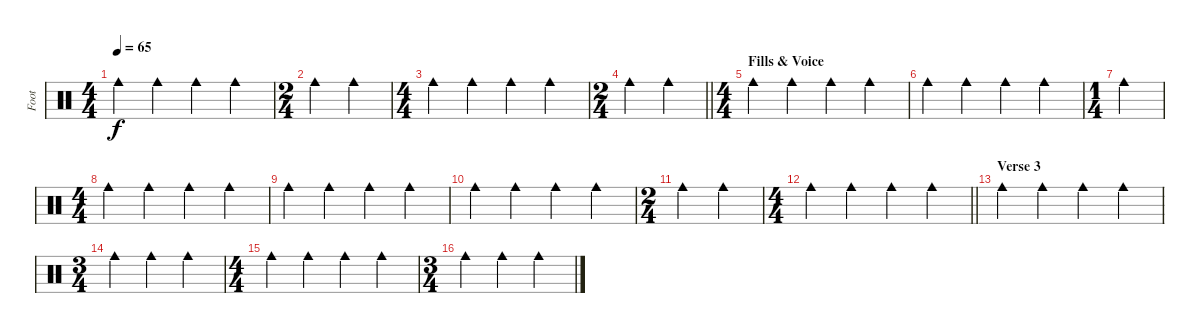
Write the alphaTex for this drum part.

\track ("Foot" "Foot") {instrument percussion}
\staff {score}
\articulation defaults
\ts (4 4)
\tempo 65
\clef neutral
\ks c "Cowbell medium (hit)".4{dy f} "Cowbell medium (hit)".4 "Cowbell medium (hit)".4 "Cowbell medium (hit)".4
|
\ts (2 4)
"Cowbell medium (hit)".4 "Cowbell medium (hit)".4 |
\ts (4 4)
"Cowbell medium (hit)".4 "Cowbell medium (hit)".4 "Cowbell medium (hit)".4 "Cowbell medium (hit)".4 |
\ts (2 4)
\barLineRight lightlight "Cowbell medium (hit)".4 "Cowbell medium (hit)".4
|
\ts (4 4)
\section ("" "Fills & Voice")
"Cowbell medium (hit)".4 "Cowbell medium (hit)".4 "Cowbell medium (hit)".4 "Cowbell medium (hit)".4 |
"Cowbell medium (hit)".4 "Cowbell medium (hit)".4 "Cowbell medium (hit)".4 "Cowbell medium (hit)".4 |
\ts (1 4)
"Cowbell medium (hit)".4 |
\ts (4 4)
"Cowbell medium (hit)".4 "Cowbell medium (hit)".4 "Cowbell medium (hit)".4 "Cowbell medium (hit)".4 |
"Cowbell medium (hit)".4 "Cowbell medium (hit)".4 "Cowbell medium (hit)".4 "Cowbell medium (hit)".4 |
"Cowbell medium (hit)".4 "Cowbell medium (hit)".4 "Cowbell medium (hit)".4 "Cowbell medium (hit)".4 |
\ts (2 4)
"Cowbell medium (hit)".4 "Cowbell medium (hit)".4 |
\ts (4 4)
\barLineRight lightlight "Cowbell medium (hit)".4 "Cowbell medium (hit)".4 "Cowbell medium (hit)".4 "Cowbell medium (hit)".4
|
\section ("" "Verse 3")
"Cowbell medium (hit)".4 "Cowbell medium (hit)".4 "Cowbell medium (hit)".4 "Cowbell medium (hit)".4 |
\ts (3 4)
"Cowbell medium (hit)".4 "Cowbell medium (hit)".4 "Cowbell medium (hit)".4 |
\ts (4 4)
"Cowbell medium (hit)".4 "Cowbell medium (hit)".4 "Cowbell medium (hit)".4 "Cowbell medium (hit)".4 |
\ts (3 4)
"Cowbell medium (hit)".4 "Cowbell medium (hit)".4 "Cowbell medium (hit)".4
